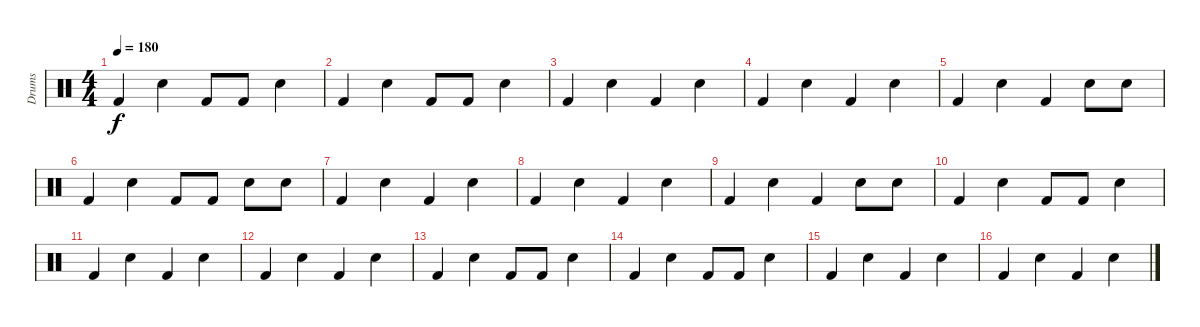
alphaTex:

\track ("Drums" "Drums") {instrument percussion}
\staff {score}
\articulation defaults
\ts (4 4)
\tempo 180
\clef neutral
\ks c "Kick (hit) 2".4{dy f} "Snare (hit) 2".4 "Kick (hit) 2".8 "Kick (hit) 2".8 "Snare (hit) 2".4
|
"Kick (hit) 2".4 "Snare (hit) 2".4 "Kick (hit) 2".8 "Kick (hit) 2".8 "Metronome (bell)".4 |
"Kick (hit) 2".4 "Snare (hit) 2".4 "Kick (hit) 2".4 "Snare (hit) 2".4 |
"Kick (hit) 2".4 "Snare (hit) 2".4 "Kick (hit) 2".4 "Snare (hit) 2".4 |
"Kick (hit) 2".4 "Snare (hit) 2".4 "Kick (hit) 2".4 "Snare (hit) 2".8 "Snare (hit) 2".8 |
"Kick (hit) 2".4 "Snare (hit) 2".4 "Kick (hit) 2".8 "Kick (hit) 2".8 "Snare (hit) 2".8 "Snare (hit) 2".8 |
"Kick (hit) 2".4 "Snare (hit) 2".4 "Kick (hit) 2".4 "Snare (hit) 2".4 |
"Kick (hit) 2".4 "Snare (hit) 2".4 "Kick (hit) 2".4 "Snare (hit) 2".4 |
"Kick (hit) 2".4 "Snare (hit) 2".4 "Kick (hit) 2".4 "Snare (hit) 2".8 "Snare (hit) 2".8 |
"Kick (hit) 2".4 "Snare (hit) 2".4 "Kick (hit) 2".8 "Kick (hit) 2".8 "Snare (hit) 2".4 |
"Kick (hit) 2".4 "Snare (hit) 2".4 "Kick (hit) 2".4 "Snare (hit) 2".4 |
"Kick (hit) 2".4 "Snare (hit) 2".4 "Kick (hit) 2".4 "Snare (hit) 2".4 |
"Kick (hit) 2".4 "Snare (hit) 2".4 "Kick (hit) 2".8 "Kick (hit) 2".8 "Snare (hit) 2".4 |
"Kick (hit) 2".4 "Snare (hit) 2".4 "Kick (hit) 2".8 "Kick (hit) 2".8 "Snare (hit) 2".4 |
"Kick (hit) 2".4 "Snare (hit) 2".4 "Kick (hit) 2".4 "Snare (hit) 2".4 |
"Kick (hit) 2".4 "Snare (hit) 2".4 "Kick (hit) 2".4 "Snare (hit) 2".4
